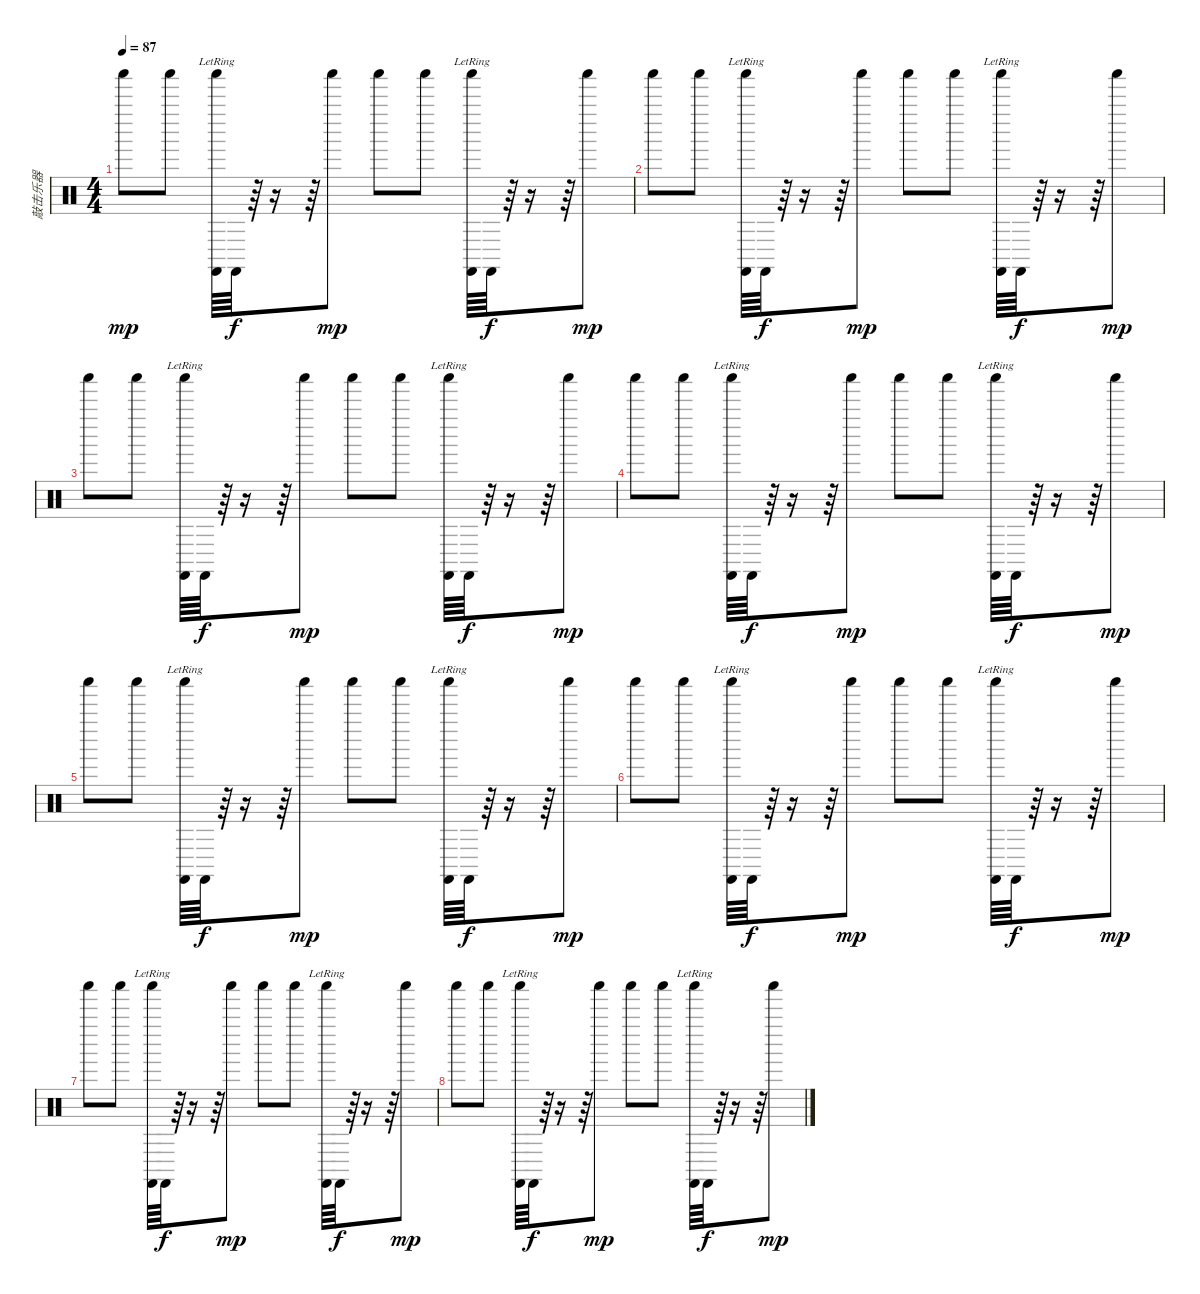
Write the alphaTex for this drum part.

\track ("敲击乐器" "敲击乐器") {instrument percussion}
\staff {score}
\articulation defaults
\ts (4 4)
\tempo 87
\clef neutral
\ks c "Shaker (hit)".8{dy mp} "Shaker (hit)".8
("Shaker (hit)"{lr} "Castanets (hit)").64 "Castanets (hit)".64{dy f} r.64 r.16 r.64 "Shaker (hit)".8{dy mp} "Shaker (hit)".8 "Shaker (hit)".8 ("Shaker (hit)"{lr} "Castanets (hit)").64 "Castanets (hit)".64{dy f} r.64 r.16 r.64 "Shaker (hit)".8{dy mp} |
"Shaker (hit)".8 "Shaker (hit)".8 ("Shaker (hit)"{lr} "Castanets (hit)").64 "Castanets (hit)".64{dy f} r.64 r.16 r.64 "Shaker (hit)".8{dy mp} "Shaker (hit)".8 "Shaker (hit)".8 ("Shaker (hit)"{lr} "Castanets (hit)").64 "Castanets (hit)".64{dy f} r.64 r.16 r.64 "Shaker (hit)".8{dy mp} |
"Shaker (hit)".8 "Shaker (hit)".8 ("Shaker (hit)"{lr} "Castanets (hit)").64 "Castanets (hit)".64{dy f} r.64 r.16 r.64 "Shaker (hit)".8{dy mp} "Shaker (hit)".8 "Shaker (hit)".8 ("Shaker (hit)"{lr} "Castanets (hit)").64 "Castanets (hit)".64{dy f} r.64 r.16 r.64 "Shaker (hit)".8{dy mp} |
"Shaker (hit)".8 "Shaker (hit)".8 ("Shaker (hit)"{lr} "Castanets (hit)").64 "Castanets (hit)".64{dy f} r.64 r.16 r.64 "Shaker (hit)".8{dy mp} "Shaker (hit)".8 "Shaker (hit)".8 ("Shaker (hit)"{lr} "Castanets (hit)").64 "Castanets (hit)".64{dy f} r.64 r.16 r.64 "Shaker (hit)".8{dy mp} |
"Shaker (hit)".8 "Shaker (hit)".8 ("Shaker (hit)"{lr} "Castanets (hit)").64 "Castanets (hit)".64{dy f} r.64 r.16 r.64 "Shaker (hit)".8{dy mp} "Shaker (hit)".8 "Shaker (hit)".8 ("Shaker (hit)"{lr} "Castanets (hit)").64 "Castanets (hit)".64{dy f} r.64 r.16 r.64 "Shaker (hit)".8{dy mp} |
"Shaker (hit)".8 "Shaker (hit)".8 ("Shaker (hit)"{lr} "Castanets (hit)").64 "Castanets (hit)".64{dy f} r.64 r.16 r.64 "Shaker (hit)".8{dy mp} "Shaker (hit)".8 "Shaker (hit)".8 ("Shaker (hit)"{lr} "Castanets (hit)").64 "Castanets (hit)".64{dy f} r.64 r.16 r.64 "Shaker (hit)".8{dy mp} |
"Shaker (hit)".8 "Shaker (hit)".8 ("Shaker (hit)"{lr} "Castanets (hit)").64 "Castanets (hit)".64{dy f} r.64 r.16 r.64 "Shaker (hit)".8{dy mp} "Shaker (hit)".8 "Shaker (hit)".8 ("Shaker (hit)"{lr} "Castanets (hit)").64 "Castanets (hit)".64{dy f} r.64 r.16 r.64 "Shaker (hit)".8{dy mp} |
"Shaker (hit)".8 "Shaker (hit)".8 ("Shaker (hit)"{lr} "Castanets (hit)").64 "Castanets (hit)".64{dy f} r.64 r.16 r.64 "Shaker (hit)".8{dy mp} "Shaker (hit)".8 "Shaker (hit)".8 ("Shaker (hit)"{lr} "Castanets (hit)").64 "Castanets (hit)".64{dy f} r.64 r.16 r.64 "Shaker (hit)".8{dy mp}
